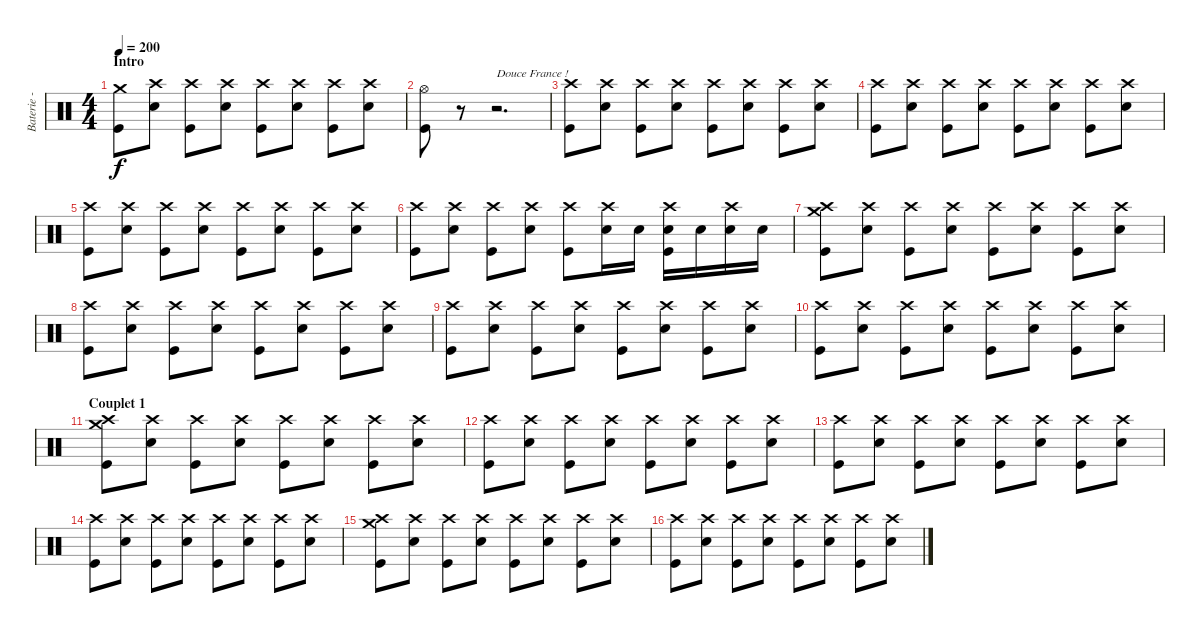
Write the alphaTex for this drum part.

\track ("Baterie - Alex" "Baterie - ") {instrument percussion}
\staff {score}
\articulation defaults
\ts (4 4)
\section ("" "Intro")
\tempo 200
\clef neutral
\ks c
("Crash medium (hit)" "Kick (hit)").8{dy f} ("Crash high (hit)" "Electric Snare (hit)").8 ("Crash high (hit)" "Kick (hit)").8 ("Crash high (hit)" "Electric Snare (hit)").8 ("Crash high (hit)" "Kick (hit)").8 ("Crash high (hit)" "Electric Snare (hit)").8 ("Crash high (hit)" "Kick (hit)").8 ("Crash high (hit)" "Electric Snare (hit)").8 |
("Hi-Hat (open)" "Kick (hit)").8 r.8 r.2{d txt "Douce France !"} |
("Crash high (hit)" "Kick (hit)").8 ("Crash high (hit)" "Electric Snare (hit)").8 ("Crash high (hit)" "Kick (hit)").8 ("Crash high (hit)" "Electric Snare (hit)").8 ("Crash high (hit)" "Kick (hit)").8 ("Crash high (hit)" "Electric Snare (hit)").8 ("Crash high (hit)" "Kick (hit)").8 ("Crash high (hit)" "Electric Snare (hit)").8 |
("Crash high (hit)" "Kick (hit)").8 ("Crash high (hit)" "Electric Snare (hit)").8 ("Crash high (hit)" "Kick (hit)").8 ("Crash high (hit)" "Electric Snare (hit)").8 ("Crash high (hit)" "Kick (hit)").8 ("Crash high (hit)" "Electric Snare (hit)").8 ("Crash high (hit)" "Kick (hit)").8 ("Crash high (hit)" "Electric Snare (hit)").8 |
("Crash high (hit)" "Kick (hit)").8 ("Crash high (hit)" "Electric Snare (hit)").8 ("Crash high (hit)" "Kick (hit)").8 ("Crash high (hit)" "Electric Snare (hit)").8 ("Crash high (hit)" "Kick (hit)").8 ("Crash high (hit)" "Electric Snare (hit)").8 ("Crash high (hit)" "Kick (hit)").8 ("Crash high (hit)" "Electric Snare (hit)").8 |
("Crash high (hit)" "Kick (hit)").8 ("Crash high (hit)" "Electric Snare (hit)").8 ("Crash high (hit)" "Kick (hit)").8 ("Crash high (hit)" "Electric Snare (hit)").8 ("Crash high (hit)" "Kick (hit)").8 ("Crash high (hit)" "Electric Snare (hit)").16 "Electric Snare (hit)".16 ("Crash high (hit)" "Electric Snare (hit)" "Kick (hit)").16 "Electric Snare (hit)".16 ("Crash high (hit)" "Electric Snare (hit)").16 "Electric Snare (hit)".16 |
("Crash high (hit)" "Crash medium (hit)" "Kick (hit)").8 ("Crash high (hit)" "Electric Snare (hit)").8 ("Crash high (hit)" "Kick (hit)").8 ("Crash high (hit)" "Electric Snare (hit)").8 ("Crash high (hit)" "Kick (hit)").8 ("Crash high (hit)" "Electric Snare (hit)").8 ("Crash high (hit)" "Kick (hit)").8 ("Crash high (hit)" "Electric Snare (hit)").8 |
("Crash high (hit)" "Kick (hit)").8 ("Crash high (hit)" "Electric Snare (hit)").8 ("Crash high (hit)" "Kick (hit)").8 ("Crash high (hit)" "Electric Snare (hit)").8 ("Crash high (hit)" "Kick (hit)").8 ("Crash high (hit)" "Electric Snare (hit)").8 ("Crash high (hit)" "Kick (hit)").8 ("Crash high (hit)" "Electric Snare (hit)").8 |
("Crash high (hit)" "Kick (hit)").8 ("Crash high (hit)" "Electric Snare (hit)").8 ("Crash high (hit)" "Kick (hit)").8 ("Crash high (hit)" "Electric Snare (hit)").8 ("Crash high (hit)" "Kick (hit)").8 ("Crash high (hit)" "Electric Snare (hit)").8 ("Crash high (hit)" "Kick (hit)").8 ("Crash high (hit)" "Electric Snare (hit)").8 |
("Crash high (hit)" "Kick (hit)").8 ("Crash high (hit)" "Electric Snare (hit)").8 ("Crash high (hit)" "Kick (hit)").8 ("Crash high (hit)" "Electric Snare (hit)").8 ("Crash high (hit)" "Kick (hit)").8 ("Crash high (hit)" "Electric Snare (hit)").8 ("Crash high (hit)" "Kick (hit)").8 ("Crash high (hit)" "Electric Snare (hit)").8 |
\section ("" "Couplet 1")
("Crash high (hit)" "Crash medium (hit)" "Kick (hit)").8 ("Crash high (hit)" "Electric Snare (hit)").8 ("Crash high (hit)" "Kick (hit)").8 ("Crash high (hit)" "Electric Snare (hit)").8 ("Crash high (hit)" "Kick (hit)").8 ("Crash high (hit)" "Electric Snare (hit)").8 ("Crash high (hit)" "Kick (hit)").8 ("Crash high (hit)" "Electric Snare (hit)").8 |
("Crash high (hit)" "Kick (hit)").8 ("Crash high (hit)" "Electric Snare (hit)").8 ("Crash high (hit)" "Kick (hit)").8 ("Crash high (hit)" "Electric Snare (hit)").8 ("Crash high (hit)" "Kick (hit)").8 ("Crash high (hit)" "Electric Snare (hit)").8 ("Crash high (hit)" "Kick (hit)").8 ("Crash high (hit)" "Electric Snare (hit)").8 |
("Crash high (hit)" "Kick (hit)").8 ("Crash high (hit)" "Electric Snare (hit)").8 ("Crash high (hit)" "Kick (hit)").8 ("Crash high (hit)" "Electric Snare (hit)").8 ("Crash high (hit)" "Kick (hit)").8 ("Crash high (hit)" "Electric Snare (hit)").8 ("Crash high (hit)" "Kick (hit)").8 ("Crash high (hit)" "Electric Snare (hit)").8 |
("Crash high (hit)" "Kick (hit)").8 ("Crash high (hit)" "Electric Snare (hit)").8 ("Crash high (hit)" "Kick (hit)").8 ("Crash high (hit)" "Electric Snare (hit)").8 ("Crash high (hit)" "Kick (hit)").8 ("Crash high (hit)" "Electric Snare (hit)").8 ("Crash high (hit)" "Kick (hit)").8 ("Crash high (hit)" "Electric Snare (hit)").8 |
("Crash high (hit)" "Crash medium (hit)" "Kick (hit)").8 ("Crash high (hit)" "Electric Snare (hit)").8 ("Crash high (hit)" "Kick (hit)").8 ("Crash high (hit)" "Electric Snare (hit)").8 ("Crash high (hit)" "Kick (hit)").8 ("Crash high (hit)" "Electric Snare (hit)").8 ("Crash high (hit)" "Kick (hit)").8 ("Crash high (hit)" "Electric Snare (hit)").8 |
("Crash high (hit)" "Kick (hit)").8 ("Crash high (hit)" "Electric Snare (hit)").8 ("Crash high (hit)" "Kick (hit)").8 ("Crash high (hit)" "Electric Snare (hit)").8 ("Crash high (hit)" "Kick (hit)").8 ("Crash high (hit)" "Electric Snare (hit)").8 ("Crash high (hit)" "Kick (hit)").8 ("Crash high (hit)" "Electric Snare (hit)").8
